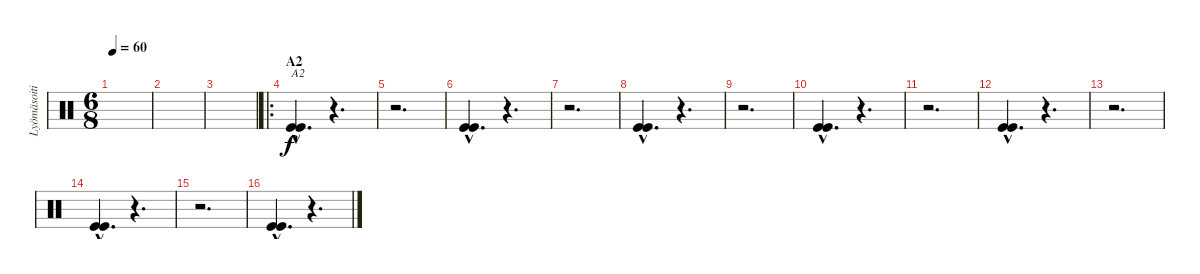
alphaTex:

\track ("Lyömäsoitin" "Lyömäsoiti") {instrument percussion}
\staff {score}
\articulation defaults
\ts (6 8)
\tempo 60
\clef neutral
\ks c
|
|
|
\ro
\section ("" "A2")
("Kick (hit)"{hac} "Kick (hit)"{hac}).4{d txt "A2"} r.4{d} |
r.2{d} |
("Kick (hit)"{hac} "Kick (hit)"{hac}).4{d} r.4{d} |
r.2{d} |
("Kick (hit)"{hac} "Kick (hit)"{hac}).4{d} r.4{d} |
r.2{d} |
("Kick (hit)"{hac} "Kick (hit)"{hac}).4{d} r.4{d} |
r.2{d} |
("Kick (hit)"{hac} "Kick (hit)"{hac}).4{d} r.4{d} |
r.2{d} |
("Kick (hit)"{hac} "Kick (hit)"{hac}).4{d} r.4{d} |
r.2{d} |
("Kick (hit)"{hac} "Kick (hit)"{hac}).4{d} r.4{d}
